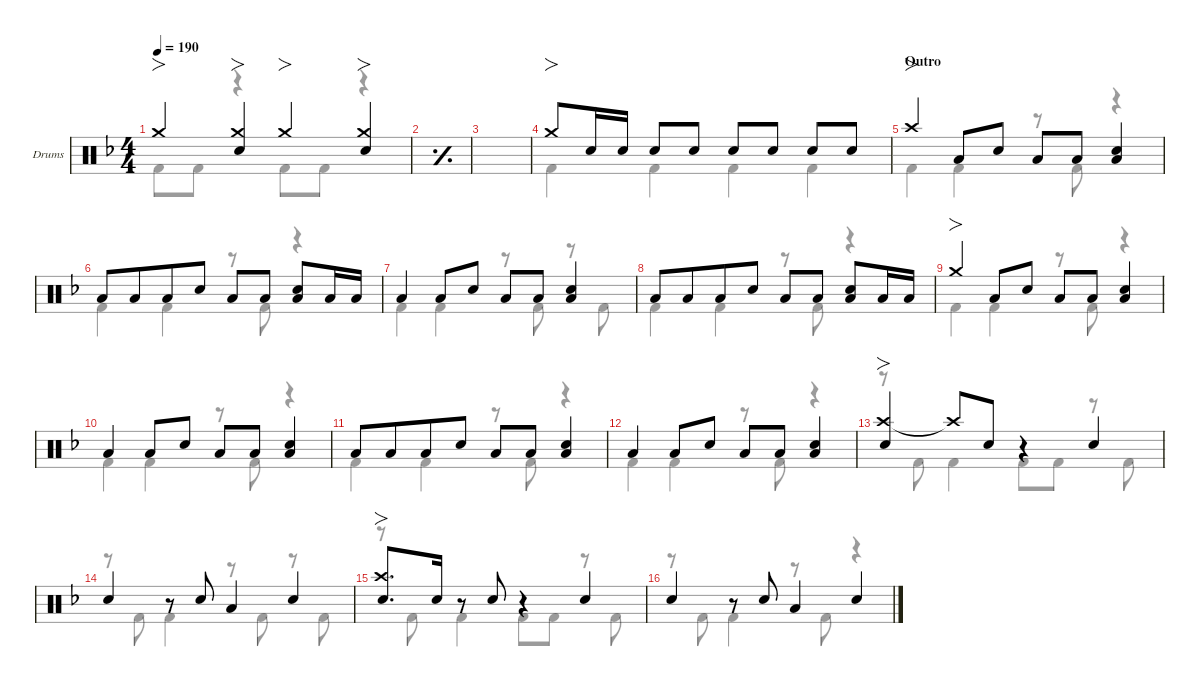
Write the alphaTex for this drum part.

\defaultSystemsLayout 4
\hideDynamics
\bracketExtendMode nobrackets
\firstSystemTrackNameOrientation horizontal
\track ("Drums" "Drums") {defaultSystemsLayout 4 instrument percussion}
\staff {score}
\articulation defaults
\voice
\ts (4 4)
\tempo 190
\clef neutral
\scale
0.267605
\ks dminor "Crash medium (hit)"{acc forcenatural}.4{fo dy f beam Up}
("Crash medium (hit)"{acc forcenatural} "Snare (hit) 2"{acc forcenatural}).4{fo beam Up} "Crash medium (hit)"{acc forcenatural}.4{fo beam Up} ("Crash medium (hit)"{acc forcenatural} "Snare (hit) 2"{acc forcenatural}).4{fo beam Up} |
\simile simple
\scale
0.244132 |
\scale
0.244132 |
\simile none
\scale
0.244132 "Crash medium (hit)"{acc forcenatural}.8{fo beam Up} "Snare (hit) 2"{acc forcenatural}.16{beam Up} "Snare (hit) 2"{acc forcenatural}.16{dy mf beam Up beam split} "Snare (hit) 2"{acc forcenatural}.8{dy f beam Up} "Snare (hit) 2"{acc forcenatural}.8{beam Up} "Snare (hit) 2"{acc forcenatural}.8{beam Up} "Snare (hit) 2"{acc forcenatural}.8{beam Up} "Snare (hit) 2"{acc forcenatural}.8{beam Up} "Snare (hit) 2"{acc forcenatural}.8{beam Up} |
\section ("" "Outro")
\scale
0.267605 "Crash high (hit)"{acc forcenatural}.4{fo beam Up} "Low Tom (hit)"{acc forcenatural}.8{beam Up} "Snare (hit) 2"{acc forcenatural}.8{beam Up} "Low Tom (hit)"{acc forcenatural}.8{beam Up} "Low Tom (hit)"{acc forcenatural}.8{beam Up} ("Low Tom (hit)"{acc forcenatural} "Snare (hit) 2"{acc forcenatural}).4{beam Up} |
\scale
0.244132 "Low Tom (hit)"{acc forcenatural}.8{beam Up beam merge} "Low Tom (hit)"{acc forcenatural}.8{beam Up beam merge} "Low Tom (hit)"{acc forcenatural}.8{beam Up beam merge} "Snare (hit) 2"{acc forcenatural}.8{beam Up} "Low Tom (hit)"{acc forcenatural}.8{beam Up} "Low Tom (hit)"{acc forcenatural}.8{beam Up beam split} ("Low Tom (hit)"{acc forcenatural} "Snare (hit) 2"{acc forcenatural}).8{beam Up} "Low Tom (hit)"{acc forcenatural}.16{beam Up} "Low Tom (hit)"{acc forcenatural}.16{beam Up} |
\scale
0.244132 "Low Tom (hit)"{acc forcenatural}.4{beam Up} "Low Tom (hit)"{acc forcenatural}.8{beam Up} "Snare (hit) 2"{acc forcenatural}.8{beam Up} "Low Tom (hit)"{acc forcenatural}.8{beam Up} "Low Tom (hit)"{acc forcenatural}.8{beam Up} ("Low Tom (hit)"{acc forcenatural} "Snare (hit) 2"{acc forcenatural}).4{beam Up} |
\scale
0.244132 "Low Tom (hit)"{acc forcenatural}.8{beam Up beam merge} "Low Tom (hit)"{acc forcenatural}.8{beam Up beam merge} "Low Tom (hit)"{acc forcenatural}.8{beam Up} "Snare (hit) 2"{acc forcenatural}.8{beam Up} "Low Tom (hit)"{acc forcenatural}.8{beam Up} "Low Tom (hit)"{acc forcenatural}.8{beam Up beam split} ("Snare (hit) 2"{acc forcenatural} "Low Tom (hit)"{acc forcenatural}).8{beam Up} "Low Tom (hit)"{acc forcenatural}.16{beam Up} "Low Tom (hit)"{acc forcenatural}.16{beam Up} |
\scale
0.267605 "Crash medium (hit)"{acc forcenatural}.4{fo beam Up} "Low Tom (hit)"{acc forcenatural}.8{beam Up} "Snare (hit) 2"{acc forcenatural}.8{beam Up} "Low Tom (hit)"{acc forcenatural}.8{beam Up} "Low Tom (hit)"{acc forcenatural}.8{beam Up} ("Low Tom (hit)"{acc forcenatural} "Snare (hit) 2"{acc forcenatural}).4{beam Up} |
\scale
0.244132 "Low Tom (hit)"{acc forcenatural}.4{beam Up beam merge} "Low Tom (hit)"{acc forcenatural}.8{beam Up beam merge} "Snare (hit) 2"{acc forcenatural}.8{beam Up} "Low Tom (hit)"{acc forcenatural}.8{beam Up} "Low Tom (hit)"{acc forcenatural}.8{beam Up} ("Low Tom (hit)"{acc forcenatural} "Snare (hit) 2"{acc forcenatural}).4{beam Up} |
\scale
0.244132 "Low Tom (hit)"{acc forcenatural}.8{beam Up beam merge} "Low Tom (hit)"{acc forcenatural}.8{beam Up beam merge} "Low Tom (hit)"{acc forcenatural}.8{beam Up beam merge} "Snare (hit) 2"{acc forcenatural}.8{beam Up} "Low Tom (hit)"{acc forcenatural}.8{beam Up} "Low Tom (hit)"{acc forcenatural}.8{beam Up} ("Low Tom (hit)"{acc forcenatural} "Snare (hit) 2"{acc forcenatural}).4{beam Up} |
\scale
0.244132 "Low Tom (hit)"{acc forcenatural}.4{beam Up} "Low Tom (hit)"{acc forcenatural}.8{beam Up} "Snare (hit) 2"{acc forcenatural}.8{beam Up} "Low Tom (hit)"{acc forcenatural}.8{beam Up} "Low Tom (hit)"{acc forcenatural}.8{beam Up} ("Low Tom (hit)"{acc forcenatural} "Snare (hit) 2"{acc forcenatural}).4{beam Up} |
\scale
0.267605 ("Crash high (hit)"{acc forcenatural} "Snare (hit) 2"{acc forcenatural}).4{fo beam Up} "Crash high (hit)"{t acc forcenatural}.8{beam Up} "Snare (hit) 2"{acc forcenatural}.8{beam Up} r.4{beam Up} "Snare (hit) 2"{acc forcenatural}.4{beam Up} |
\scale
0.244132 "Snare (hit) 2"{acc forcenatural}.4{beam Up} r.8{beam Up} "Snare (hit) 2"{acc forcenatural}.8{beam Up} "Low Tom (hit)"{acc forcenatural}.4{beam Up} "Snare (hit) 2"{acc forcenatural}.4{beam Up} |
\scale
0.244132 ("Snare (hit) 2"{acc forcenatural} "Crash high (hit)"{acc forcenatural}).8{fo d beam Up} "Snare (hit) 2"{acc forcenatural}.16{beam Up beam split} r.8{beam Up beam split} "Snare (hit) 2"{acc forcenatural}.8{beam Up} r.4{beam Up} "Snare (hit) 2"{acc forcenatural}.4{beam Up} |
\scale
0.244132 "Snare (hit) 2"{acc forcenatural}.4{beam Up} r.8{beam Up} "Snare (hit) 2"{acc forcenatural}.8{beam Up} "Low Tom (hit)"{acc forcenatural}.4{beam Up} "Snare (hit) 2"{acc forcenatural}.4{beam Up}
\voice
\clef neutral
\ottava regular
\simile none
\scale
0.267605
\ks dminor "Kick (hit) 2"{acc forcenatural}.8{dy f beam Down} "Kick (hit) 2"{acc forcenatural}.8{beam Down}
r.4{beam Down} "Kick (hit) 2"{acc forcenatural}.8{beam Down} "Kick (hit) 2"{acc forcenatural}.8{beam Down} r.4{beam Down} |
\simile simple
\scale
0.244132 |
\scale
0.244132 |
\simile none
\scale
0.244132 "Kick (hit) 2"{acc forcenatural}.4{beam Down} "Kick (hit) 2"{acc forcenatural}.4{beam Down} "Kick (hit) 2"{acc forcenatural}.4{beam Down} "Kick (hit) 2"{acc forcenatural}.4{beam Down} |
\scale
0.267605 "Kick (hit) 2"{acc forcenatural}.4{beam Down} "Kick (hit) 2"{acc forcenatural}.4{beam Down} r.8{beam Down} "Kick (hit) 2"{acc forcenatural}.8{beam Down} r.4{beam Down} |
\scale
0.244132 "Kick (hit) 2"{acc forcenatural}.4{beam Down} "Kick (hit) 2"{acc forcenatural}.4{beam Down} r.8{beam Down} "Kick (hit) 2"{acc forcenatural}.8{beam Down} r.4{beam Down} |
\scale
0.244132 "Kick (hit) 2"{acc forcenatural}.4{beam Down} "Kick (hit) 2"{acc forcenatural}.4{beam Down} r.8{beam Down} "Kick (hit) 2"{acc forcenatural}.8{beam Down} r.8{beam Down} "Kick (hit) 2"{acc forcenatural}.8{beam Down} |
\scale
0.244132 "Kick (hit) 2"{acc forcenatural}.4{beam Down} "Kick (hit) 2"{acc forcenatural}.4{beam Down} r.8{beam Down} "Kick (hit) 2"{acc forcenatural}.8{beam Down} r.4{beam Down} |
\scale
0.267605 "Kick (hit) 2"{acc forcenatural}.4{beam Down} "Kick (hit) 2"{acc forcenatural}.4{beam Down} r.8{beam Down} "Kick (hit) 2"{acc forcenatural}.8{beam Down} r.4{beam Down} |
\scale
0.244132 "Kick (hit) 2"{acc forcenatural}.4{beam Down} "Kick (hit) 2"{acc forcenatural}.4{beam Down} r.8{beam Down} "Kick (hit) 2"{acc forcenatural}.8{beam Down} r.4{beam Down} |
\scale
0.244132 "Kick (hit) 2"{acc forcenatural}.4{beam Down} "Kick (hit) 2"{acc forcenatural}.4{beam Down} r.8{beam Down} "Kick (hit) 2"{acc forcenatural}.8{beam Down beam split} r.4{beam Down beam split} |
\scale
0.244132 "Kick (hit) 2"{acc forcenatural}.4{beam Down} "Kick (hit) 2"{acc forcenatural}.4{beam Down} r.8{beam Down} "Kick (hit) 2"{acc forcenatural}.8{beam Down} r.4{beam Down} |
\scale
0.267605 r.8{beam Down} "Kick (hit) 2"{acc forcenatural}.8{beam Down} "Kick (hit) 2"{acc forcenatural}.4{beam Down} "Kick (hit) 2"{acc forcenatural}.8{beam Down} "Kick (hit) 2"{acc forcenatural}.8{beam Down} r.8{beam Down} "Kick (hit) 2"{acc forcenatural}.8{beam Down} |
\scale
0.244132 r.8{beam Down} "Kick (hit) 2"{acc forcenatural}.8{beam Down} "Kick (hit) 2"{acc forcenatural}.4{beam Down} r.8{beam Down} "Kick (hit) 2"{acc forcenatural}.8{beam Down} r.8{beam Down} "Kick (hit) 2"{acc forcenatural}.8{beam Down} |
\scale
0.244132 r.8{beam Down} "Kick (hit) 2"{acc forcenatural}.8{beam Down} "Kick (hit) 2"{acc forcenatural}.4{beam Down} "Kick (hit) 2"{acc forcenatural}.8{beam Down} "Kick (hit) 2"{acc forcenatural}.8{beam Down} r.8{beam Down} "Kick (hit) 2"{acc forcenatural}.8{beam Down} |
\scale
0.244132 r.8{beam Down} "Kick (hit) 2"{acc forcenatural}.8{beam Down} "Kick (hit) 2"{acc forcenatural}.4{beam Down} r.8{beam Down} "Kick (hit) 2"{acc forcenatural}.8{beam Down} r.4{beam Down}
